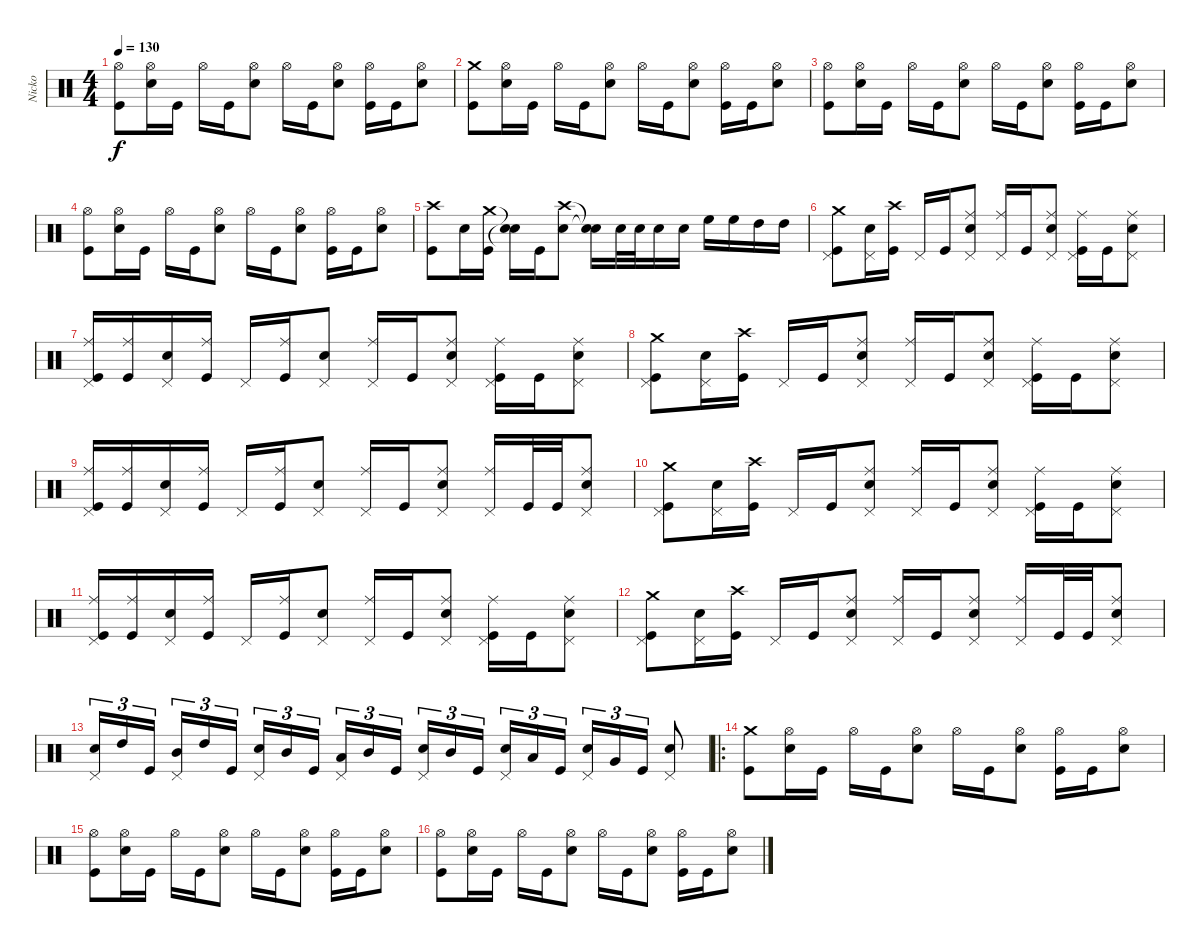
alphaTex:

\track ("Nicko" "Nicko") {instrument percussion}
\staff {score}
\articulation defaults
\ts (4 4)
\tempo 130
\clef neutral
\ks c
("Hi-Hat (open)" "Kick (hit)").8{dy f} ("Hi-Hat (open)" "Snare (hit) 2").16 "Kick (hit)".16 "Hi-Hat (open)".16 "Kick (hit)".16 ("Hi-Hat (open)" "Snare (hit) 2").8 "Hi-Hat (open)".16 "Kick (hit)".16 ("Hi-Hat (open)" "Snare (hit) 2").8 ("Hi-Hat (open)" "Kick (hit)").16 "Kick (hit)".16 ("Hi-Hat (open)" "Snare (hit) 2").8 |
("Crash medium (hit)" "Kick (hit)").8 ("Hi-Hat (open)" "Snare (hit) 2").16 "Kick (hit)".16 "Hi-Hat (open)".16 "Kick (hit)".16 ("Hi-Hat (open)" "Snare (hit) 2").8 "Hi-Hat (open)".16 "Kick (hit)".16 ("Hi-Hat (open)" "Snare (hit) 2").8 ("Hi-Hat (open)" "Kick (hit)").16 "Kick (hit)".16 ("Hi-Hat (open)" "Snare (hit) 2").8 |
("Hi-Hat (open)" "Kick (hit)").8 ("Hi-Hat (open)" "Snare (hit) 2").16 "Kick (hit)".16 "Hi-Hat (open)".16 "Kick (hit)".16 ("Hi-Hat (open)" "Snare (hit) 2").8 "Hi-Hat (open)".16 "Kick (hit)".16 ("Hi-Hat (open)" "Snare (hit) 2").8 ("Hi-Hat (open)" "Kick (hit)").16 "Kick (hit)".16 ("Hi-Hat (open)" "Snare (hit) 2").8 |
("Hi-Hat (open)" "Kick (hit)").8 ("Hi-Hat (open)" "Snare (hit) 2").16 "Kick (hit)".16 "Hi-Hat (open)".16 "Kick (hit)".16 ("Hi-Hat (open)" "Snare (hit) 2").8 "Hi-Hat (open)".16 "Kick (hit)".16 ("Hi-Hat (open)" "Snare (hit) 2").8 ("Hi-Hat (open)" "Kick (hit)").16 "Kick (hit)".16 ("Hi-Hat (open)" "Snare (hit) 2").8 |
("Crash high (hit)" "Kick (hit)").8 "Snare (hit) 2".16 ("Crash medium (hit)" "Kick (hit)").16 ("Snare (hit)"{t} "Snare (hit)"{t}).16 "Kick (hit)".16 ("Crash high (hit)" "Snare (hit) 2").8 ("Snare (hit)"{t} "Snare (hit)"{t}).16 "Snare (hit) 2".32 "Snare (hit) 2".32 "Snare (hit) 2".16 "Snare (hit) 2".16 "High Floor Tom (hit)".16 "High Floor Tom (hit)".16 "High Tom (hit)".16 "High Tom (hit)".16 |
("Crash medium (hit)" "Pedal Hi-Hat (hit)" "Kick (hit)").8 ("Snare (hit) 2" "Pedal Hi-Hat (hit)").16 ("Crash high (hit)" "Kick (hit)").16 "Pedal Hi-Hat (hit)".16 "Kick (hit)".16 ("Ride (middle)" "Snare (hit) 2" "Pedal Hi-Hat (hit)").8 ("Ride (middle)" "Pedal Hi-Hat (hit)").16 "Kick (hit)".16 ("Ride (middle)" "Snare (hit) 2" "Pedal Hi-Hat (hit)").8 ("Ride (middle)" "Pedal Hi-Hat (hit)" "Kick (hit)").16 "Kick (hit)".16 ("Ride (middle)" "Snare (hit) 2" "Pedal Hi-Hat (hit)").8 |
("Ride (middle)" "Pedal Hi-Hat (hit)" "Kick (hit)").16 ("Ride (middle)" "Kick (hit)").16 ("Snare (hit) 2" "Pedal Hi-Hat (hit)").16 ("Ride (middle)" "Kick (hit)").16 "Pedal Hi-Hat (hit)".16 ("Ride (middle)" "Kick (hit)").16 ("Snare (hit) 2" "Pedal Hi-Hat (hit)").8 ("Ride (middle)" "Pedal Hi-Hat (hit)").16 "Kick (hit)".16 ("Ride (middle)" "Snare (hit) 2" "Pedal Hi-Hat (hit)").8 ("Ride (middle)" "Pedal Hi-Hat (hit)" "Kick (hit)").16 "Kick (hit)".16 ("Ride (middle)" "Snare (hit) 2" "Pedal Hi-Hat (hit)").8 |
("Crash medium (hit)" "Pedal Hi-Hat (hit)" "Kick (hit)").8 ("Snare (hit) 2" "Pedal Hi-Hat (hit)").16 ("Crash high (hit)" "Kick (hit)").16 "Pedal Hi-Hat (hit)".16 "Kick (hit)".16 ("Ride (middle)" "Snare (hit) 2" "Pedal Hi-Hat (hit)").8 ("Ride (middle)" "Pedal Hi-Hat (hit)").16 "Kick (hit)".16 ("Ride (middle)" "Snare (hit) 2" "Pedal Hi-Hat (hit)").8 ("Ride (middle)" "Pedal Hi-Hat (hit)" "Kick (hit)").16 "Kick (hit)".16 ("Ride (middle)" "Snare (hit) 2" "Pedal Hi-Hat (hit)").8 |
("Ride (middle)" "Pedal Hi-Hat (hit)" "Kick (hit)").16 ("Ride (middle)" "Kick (hit)").16 ("Snare (hit) 2" "Pedal Hi-Hat (hit)").16 ("Ride (middle)" "Kick (hit)").16 "Pedal Hi-Hat (hit)".16 ("Ride (middle)" "Kick (hit)").16 ("Snare (hit) 2" "Pedal Hi-Hat (hit)").8 ("Ride (middle)" "Pedal Hi-Hat (hit)").16 "Kick (hit)".16 ("Ride (middle)" "Snare (hit) 2" "Pedal Hi-Hat (hit)").8 ("Ride (middle)" "Pedal Hi-Hat (hit)").16 "Kick (hit)".32 "Kick (hit)".32 ("Ride (middle)" "Snare (hit) 2" "Pedal Hi-Hat (hit)").8 |
("Crash medium (hit)" "Pedal Hi-Hat (hit)" "Kick (hit)").8 ("Snare (hit) 2" "Pedal Hi-Hat (hit)").16 ("Crash high (hit)" "Kick (hit)").16 "Pedal Hi-Hat (hit)".16 "Kick (hit)".16 ("Ride (middle)" "Snare (hit) 2" "Pedal Hi-Hat (hit)").8 ("Ride (middle)" "Pedal Hi-Hat (hit)").16 "Kick (hit)".16 ("Ride (middle)" "Snare (hit) 2" "Pedal Hi-Hat (hit)").8 ("Ride (middle)" "Pedal Hi-Hat (hit)" "Kick (hit)").16 "Kick (hit)".16 ("Ride (middle)" "Snare (hit) 2" "Pedal Hi-Hat (hit)").8 |
("Ride (middle)" "Pedal Hi-Hat (hit)" "Kick (hit)").16 ("Ride (middle)" "Kick (hit)").16 ("Snare (hit) 2" "Pedal Hi-Hat (hit)").16 ("Ride (middle)" "Kick (hit)").16 "Pedal Hi-Hat (hit)".16 ("Ride (middle)" "Kick (hit)").16 ("Snare (hit) 2" "Pedal Hi-Hat (hit)").8 ("Ride (middle)" "Pedal Hi-Hat (hit)").16 "Kick (hit)".16 ("Ride (middle)" "Snare (hit) 2" "Pedal Hi-Hat (hit)").8 ("Ride (middle)" "Pedal Hi-Hat (hit)" "Kick (hit)").16 "Kick (hit)".16 ("Ride (middle)" "Snare (hit) 2" "Pedal Hi-Hat (hit)").8 |
("Crash medium (hit)" "Pedal Hi-Hat (hit)" "Kick (hit)").8 ("Snare (hit) 2" "Pedal Hi-Hat (hit)").16 ("Crash high (hit)" "Kick (hit)").16 "Pedal Hi-Hat (hit)".16 "Kick (hit)".16 ("Ride (middle)" "Snare (hit) 2" "Pedal Hi-Hat (hit)").8 ("Ride (middle)" "Pedal Hi-Hat (hit)").16 "Kick (hit)".16 ("Ride (middle)" "Snare (hit) 2" "Pedal Hi-Hat (hit)").8 ("Ride (middle)" "Pedal Hi-Hat (hit)").16 "Kick (hit)".32 "Kick (hit)".32 ("Ride (middle)" "Snare (hit) 2" "Pedal Hi-Hat (hit)").8 |
("Snare (hit) 2" "Pedal Hi-Hat (hit)").16{tu (3 2)} "High Tom (hit)".16{tu (3 2)} "Kick (hit)".16{tu (3 2)} ("Mid Tom (hit)" "Pedal Hi-Hat (hit)").16{tu (3 2)} "High Tom (hit)".16{tu (3 2)} "Kick (hit)".16{tu (3 2)} ("Snare (hit) 2" "Pedal Hi-Hat (hit)").16{tu (3 2)} "Mid Tom (hit)".16{tu (3 2)} "Kick (hit)".16{tu (3 2)} ("Low Tom (hit)" "Pedal Hi-Hat (hit)").16{tu (3 2)} "Mid Tom (hit)".16{tu (3 2)} "Kick (hit)".16{tu (3 2)} ("Snare (hit) 2" "Pedal Hi-Hat (hit)").16{tu (3 2)} "Mid Tom (hit)".16{tu (3 2)} "Kick (hit)".16{tu (3 2)} ("Snare (hit) 2" "Pedal Hi-Hat (hit)").16{tu (3 2)} "Low Tom (hit)".16{tu (3 2)} "Kick (hit)".16{tu (3 2)} ("Snare (hit) 2" "Pedal Hi-Hat (hit)").16{tu (3 2)} "Very Low Tom (hit)".16{tu (3 2)} "Kick (hit)".16{tu (3 2)} ("Snare (hit) 2" "Pedal Hi-Hat (hit)").8 |
\ro
("Crash medium (hit)" "Kick (hit)").8 ("Hi-Hat (open)" "Snare (hit) 2").16 "Kick (hit)".16 "Hi-Hat (open)".16 "Kick (hit)".16 ("Hi-Hat (open)" "Snare (hit) 2").8 "Hi-Hat (open)".16 "Kick (hit)".16 ("Hi-Hat (open)" "Snare (hit) 2").8 ("Hi-Hat (open)" "Kick (hit)").16 "Kick (hit)".16 ("Hi-Hat (open)" "Snare (hit) 2").8 |
("Hi-Hat (open)" "Kick (hit)").8 ("Hi-Hat (open)" "Snare (hit) 2").16 "Kick (hit)".16 "Hi-Hat (open)".16 "Kick (hit)".16 ("Hi-Hat (open)" "Snare (hit) 2").8 "Hi-Hat (open)".16 "Kick (hit)".16 ("Hi-Hat (open)" "Snare (hit) 2").8 ("Hi-Hat (open)" "Kick (hit)").16 "Kick (hit)".16 ("Hi-Hat (open)" "Snare (hit) 2").8 |
("Hi-Hat (open)" "Kick (hit)").8 ("Hi-Hat (open)" "Snare (hit) 2").16 "Kick (hit)".16 "Hi-Hat (open)".16 "Kick (hit)".16 ("Hi-Hat (open)" "Snare (hit) 2").8 "Hi-Hat (open)".16 "Kick (hit)".16 ("Hi-Hat (open)" "Snare (hit) 2").8 ("Hi-Hat (open)" "Kick (hit)").16 "Kick (hit)".16 ("Hi-Hat (open)" "Snare (hit) 2").8
